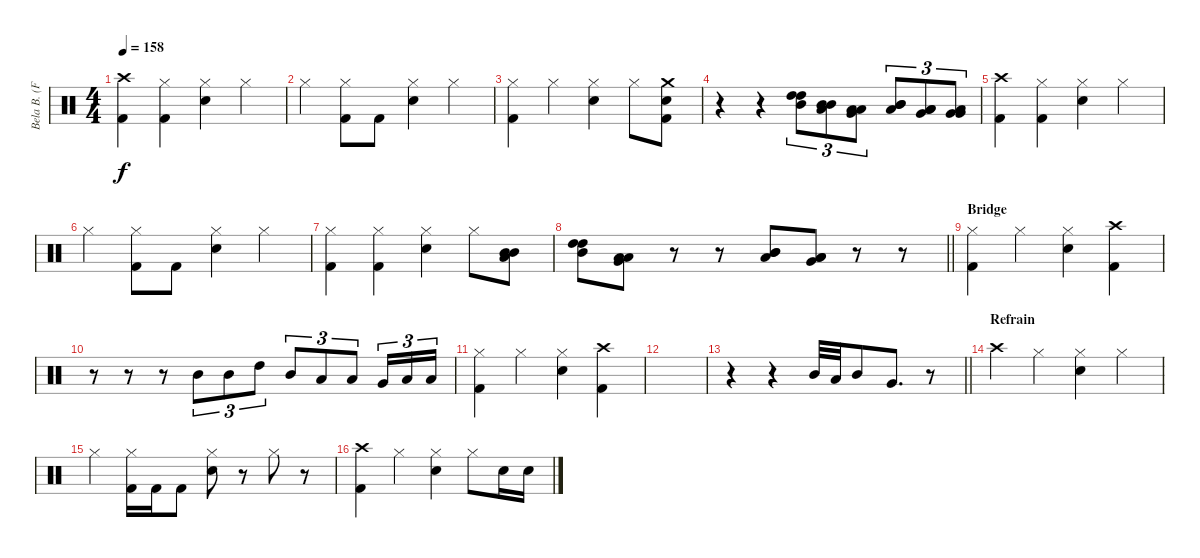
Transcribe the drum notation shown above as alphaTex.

\track ("Bela B. (Felsenheimer)" "Bela B. (F") {instrument percussion}
\staff {score}
\articulation defaults
\ts (4 4)
\tempo 158
\clef neutral
\ks c
("Crash high (hit)" "Kick (hit) 2").4{dy f} ("Hi-Hat (closed)" "Kick (hit) 2").4 ("Hi-Hat (closed)" "Electric Snare (hit)").4 "Hi-Hat (closed)".4 |
"Hi-Hat (closed)".4 ("Kick (hit) 2" "Hi-Hat (closed)").8 "Kick (hit) 2".8 ("Electric Snare (hit)" "Hi-Hat (closed)").4 "Hi-Hat (closed)".4 |
("Hi-Hat (closed)" "Kick (hit) 2").4 "Hi-Hat (closed)".4 ("Hi-Hat (closed)" "Electric Snare (hit)").4 "Hi-Hat (closed)".8 ("Crash medium (hit)" "Electric Snare (hit)" "Kick (hit) 2").8 |
r.4 r.4 ("High Tom (hit)" "Mid Tom (hit)" "High Tom (hit)").8{tu (3 2)} ("Mid Tom (hit)" "Low Tom (hit)" "Mid Tom (hit)").8{tu (3 2)} ("Low Tom (hit)" "Very Low Tom (hit)" "Low Tom (hit)").8{tu (3 2)} ("Mid Tom (hit)" "Low Tom (hit)" "Mid Tom (hit)").8{tu (3 2)} ("Low Tom (hit)" "Very Low Tom (hit)" "Low Tom (hit)").8{tu (3 2)} ("Very Low Tom (hit)" "Low Floor Tom (hit)" "Very Low Tom (hit)").8{tu (3 2)} |
("Crash high (hit)" "Kick (hit) 2").4 ("Hi-Hat (closed)" "Kick (hit) 2").4 ("Hi-Hat (closed)" "Electric Snare (hit)").4 "Hi-Hat (closed)".4 |
"Hi-Hat (closed)".4 ("Kick (hit) 2" "Hi-Hat (closed)").8 "Kick (hit) 2".8 ("Electric Snare (hit)" "Hi-Hat (closed)").4 "Hi-Hat (closed)".4 |
("Hi-Hat (closed)" "Kick (hit) 2").4 ("Hi-Hat (closed)" "Kick (hit) 2").4 ("Hi-Hat (closed)" "Electric Snare (hit)").4 "Hi-Hat (closed)".8 ("Mid Tom (hit)" "Mid Tom (hit)" "Low Tom (hit)").8 |
\barLineRight lightlight
("High Tom (hit)" "High Tom (hit)" "Mid Tom (hit)").8 ("Low Tom (hit)" "Low Tom (hit)" "Very Low Tom (hit)").8 r.8 r.8 ("Mid Tom (hit)" "Mid Tom (hit)" "Low Tom (hit)").8 ("Low Tom (hit)" "Low Tom (hit)" "Very Low Tom (hit)").8 r.8 r.8 |
\section ("" "Bridge")
("Kick (hit) 2" "Hi-Hat (closed)").4 "Hi-Hat (closed)".4 ("Electric Snare (hit)" "Hi-Hat (closed)").4 ("Crash high (hit)" "Kick (hit) 2").4 |
r.8 r.8 r.8 "Mid Tom (hit)".8{tu (3 2)} "Mid Tom (hit)".8{tu (3 2)} "High Tom (hit)".8{tu (3 2)} "Mid Tom (hit)".8{tu (3 2)} "Low Tom (hit)".8{tu (3 2)} "Low Tom (hit)".8{tu (3 2)} "Very Low Tom (hit)".16{tu (3 2)} "Low Floor Tom (hit)".16{tu (3 2)} "Low Floor Tom (hit)".16{tu (3 2)} |
("Kick (hit) 2" "Hi-Hat (closed)").4 "Hi-Hat (closed)".4 ("Electric Snare (hit)" "Hi-Hat (closed)").4 ("Crash high (hit)" "Kick (hit) 2").4 |
|
\barLineRight lightlight
r.4 r.4 "Mid Tom (hit)".32 "Low Tom (hit)".32 "Mid Tom (hit)".8 "Very Low Tom (hit)".8{d} r.8 |
\section ("" "Refrain")
"Crash high (hit)".4 "Hi-Hat (closed)".4 ("Hi-Hat (closed)" "Electric Snare (hit)").4 "Hi-Hat (closed)".4 |
"Hi-Hat (closed)".4 ("Kick (hit) 2" "Hi-Hat (closed)").16 "Kick (hit) 2".16 "Kick (hit) 2".8 ("Snare (hit) 2" "Hi-Hat (closed)").8 r.8 "Hi-Hat (closed)".8 r.8 |
("Crash high (hit)" "Kick (hit) 2").4 "Hi-Hat (closed)".4 ("Hi-Hat (closed)" "Electric Snare (hit)").4 "Hi-Hat (closed)".8 "Electric Snare (hit)".16 "Electric Snare (hit)".16
